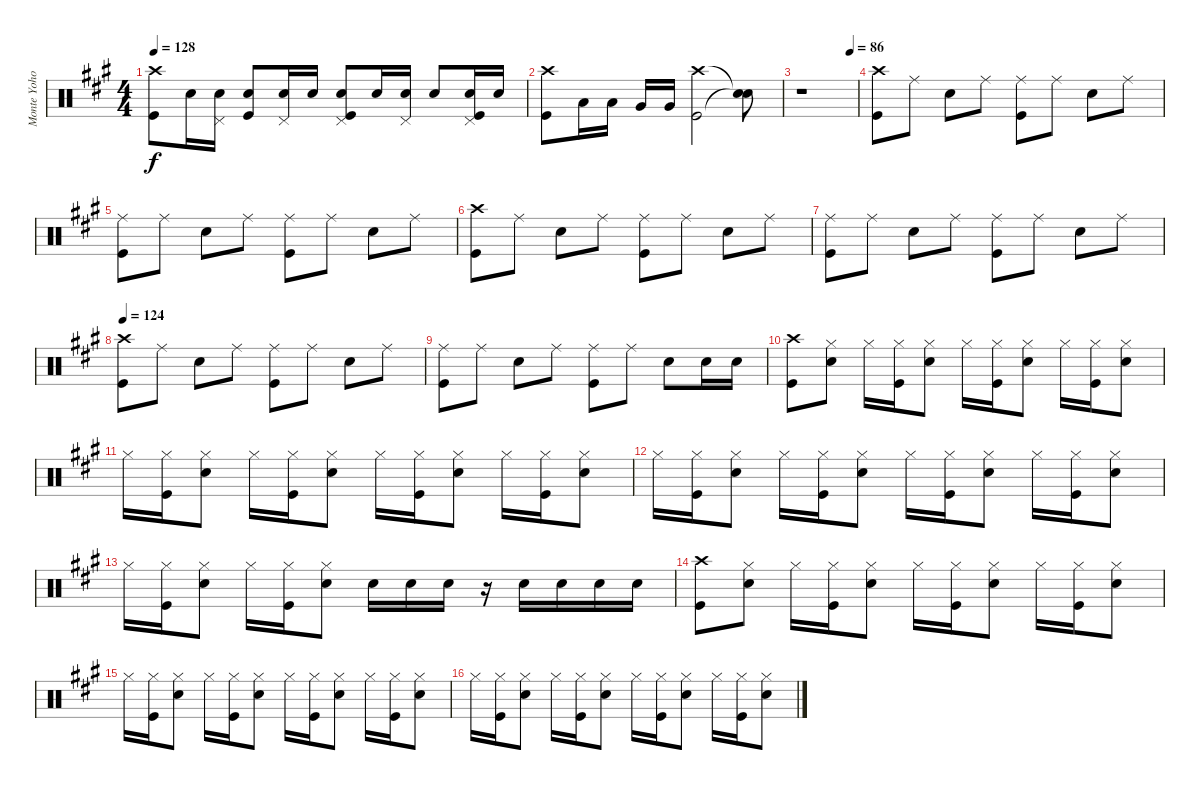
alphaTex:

\track ("Monte Yoho Drums" "Monte Yoho") {instrument percussion}
\staff {score}
\articulation defaults
\ts (4 4)
\tempo 128
\clef neutral
\ks a
("Crash high (hit)" "Kick (hit)").8{dy f} "Snare (hit) 2".16 ("Pedal Hi-Hat (hit)" "Snare (hit) 2").16 ("Snare (hit) 2" "Kick (hit)").8 ("Pedal Hi-Hat (hit)" "Snare (hit) 2").16 "Snare (hit) 2".16 ("Pedal Hi-Hat (hit)" "Snare (hit) 2" "Kick (hit)").8 "Snare (hit) 2".16 ("Pedal Hi-Hat (hit)" "Snare (hit) 2").16 "Snare (hit) 2".8 ("Pedal Hi-Hat (hit)" "Snare (hit) 2" "Kick (hit)").16 "Snare (hit) 2".16 |
("Crash high (hit)" "Kick (hit)").8 "Low Tom (hit)".16 "Low Tom (hit)".16 "Very Low Tom (hit)".16 "Very Low Tom (hit)".16 ("Crash high (hit)" "Kick (hit)").2 ("Snare (hit)"{t} "Snare (hit)"{t}).8 |
\tempo (86 0.875)
r.1 |
("Crash high (hit)" "Kick (hit)").8 "Ride (middle)".8 "Snare (hit) 2".8 "Ride (middle)".8 ("Ride (middle)" "Kick (hit)").8 "Ride (middle)".8 "Snare (hit) 2".8 "Ride (middle)".8 |
("Ride (middle)" "Kick (hit)").8 "Ride (middle)".8 "Snare (hit) 2".8 "Ride (middle)".8 ("Ride (middle)" "Kick (hit)").8 "Ride (middle)".8 "Snare (hit) 2".8 "Ride (middle)".8 |
("Crash high (hit)" "Kick (hit)").8 "Ride (middle)".8 "Snare (hit) 2".8 "Ride (middle)".8 ("Ride (middle)" "Kick (hit)").8 "Ride (middle)".8 "Snare (hit) 2".8 "Ride (middle)".8 |
("Ride (middle)" "Kick (hit)").8 "Ride (middle)".8 "Snare (hit) 2".8 "Ride (middle)".8 ("Ride (middle)" "Kick (hit)").8 "Ride (middle)".8 "Snare (hit) 2".8 "Ride (middle)".8 |
\tempo 124
("Crash high (hit)" "Kick (hit)").8 "Ride (middle)".8 "Snare (hit) 2".8 "Ride (middle)".8 ("Ride (middle)" "Kick (hit)").8 "Ride (middle)".8 "Snare (hit) 2".8 "Ride (middle)".8 |
("Ride (middle)" "Kick (hit)").8 "Ride (middle)".8 "Snare (hit) 2".8 "Ride (middle)".8 ("Ride (middle)" "Kick (hit)").8 "Ride (middle)".8 "Snare (hit) 2".8 "Snare (hit) 2".16 "Snare (hit) 2".16 |
("Crash high (hit)" "Kick (hit)").8 ("Hi-Hat (closed)" "Snare (hit) 2").8 "Hi-Hat (closed)".16 ("Hi-Hat (closed)" "Kick (hit)").16 ("Hi-Hat (closed)" "Snare (hit) 2").8 "Hi-Hat (closed)".16 ("Hi-Hat (closed)" "Kick (hit)").16 ("Hi-Hat (closed)" "Snare (hit) 2").8 "Hi-Hat (closed)".16 ("Hi-Hat (closed)" "Kick (hit)").16 ("Hi-Hat (closed)" "Snare (hit) 2").8 |
"Hi-Hat (closed)".16 ("Hi-Hat (closed)" "Kick (hit)").16 ("Hi-Hat (closed)" "Snare (hit) 2").8 "Hi-Hat (closed)".16 ("Hi-Hat (closed)" "Kick (hit)").16 ("Hi-Hat (closed)" "Snare (hit) 2").8 "Hi-Hat (closed)".16 ("Hi-Hat (closed)" "Kick (hit)").16 ("Hi-Hat (closed)" "Snare (hit) 2").8 "Hi-Hat (closed)".16 ("Hi-Hat (closed)" "Kick (hit)").16 ("Hi-Hat (closed)" "Snare (hit) 2").8 |
"Hi-Hat (closed)".16 ("Hi-Hat (closed)" "Kick (hit)").16 ("Hi-Hat (closed)" "Snare (hit) 2").8 "Hi-Hat (closed)".16 ("Hi-Hat (closed)" "Kick (hit)").16 ("Hi-Hat (closed)" "Snare (hit) 2").8 "Hi-Hat (closed)".16 ("Hi-Hat (closed)" "Kick (hit)").16 ("Hi-Hat (closed)" "Snare (hit) 2").8 "Hi-Hat (closed)".16 ("Hi-Hat (closed)" "Kick (hit)").16 ("Hi-Hat (closed)" "Snare (hit) 2").8 |
"Hi-Hat (closed)".16 ("Hi-Hat (closed)" "Kick (hit)").16 ("Hi-Hat (closed)" "Snare (hit) 2").8 "Hi-Hat (closed)".16 ("Hi-Hat (closed)" "Kick (hit)").16 ("Hi-Hat (closed)" "Snare (hit) 2").8 "Snare (hit) 2".16 "Snare (hit) 2".16 "Snare (hit) 2".16 r.16 "Snare (hit) 2".16 "Snare (hit) 2".16 "Snare (hit) 2".16 "Snare (hit) 2".16 |
("Crash high (hit)" "Kick (hit)").8 ("Hi-Hat (closed)" "Snare (hit) 2").8 "Hi-Hat (closed)".16 ("Hi-Hat (closed)" "Kick (hit)").16 ("Hi-Hat (closed)" "Snare (hit) 2").8 "Hi-Hat (closed)".16 ("Hi-Hat (closed)" "Kick (hit)").16 ("Hi-Hat (closed)" "Snare (hit) 2").8 "Hi-Hat (closed)".16 ("Hi-Hat (closed)" "Kick (hit)").16 ("Hi-Hat (closed)" "Snare (hit) 2").8 |
"Hi-Hat (closed)".16 ("Hi-Hat (closed)" "Kick (hit)").16 ("Hi-Hat (closed)" "Snare (hit) 2").8 "Hi-Hat (closed)".16 ("Hi-Hat (closed)" "Kick (hit)").16 ("Hi-Hat (closed)" "Snare (hit) 2").8 "Hi-Hat (closed)".16 ("Hi-Hat (closed)" "Kick (hit)").16 ("Hi-Hat (closed)" "Snare (hit) 2").8 "Hi-Hat (closed)".16 ("Hi-Hat (closed)" "Kick (hit)").16 ("Hi-Hat (closed)" "Snare (hit) 2").8 |
"Hi-Hat (closed)".16 ("Hi-Hat (closed)" "Kick (hit)").16 ("Hi-Hat (closed)" "Snare (hit) 2").8 "Hi-Hat (closed)".16 ("Hi-Hat (closed)" "Kick (hit)").16 ("Hi-Hat (closed)" "Snare (hit) 2").8 "Hi-Hat (closed)".16 ("Hi-Hat (closed)" "Kick (hit)").16 ("Hi-Hat (closed)" "Snare (hit) 2").8 "Hi-Hat (closed)".16 ("Hi-Hat (closed)" "Kick (hit)").16 ("Hi-Hat (closed)" "Snare (hit) 2").8
